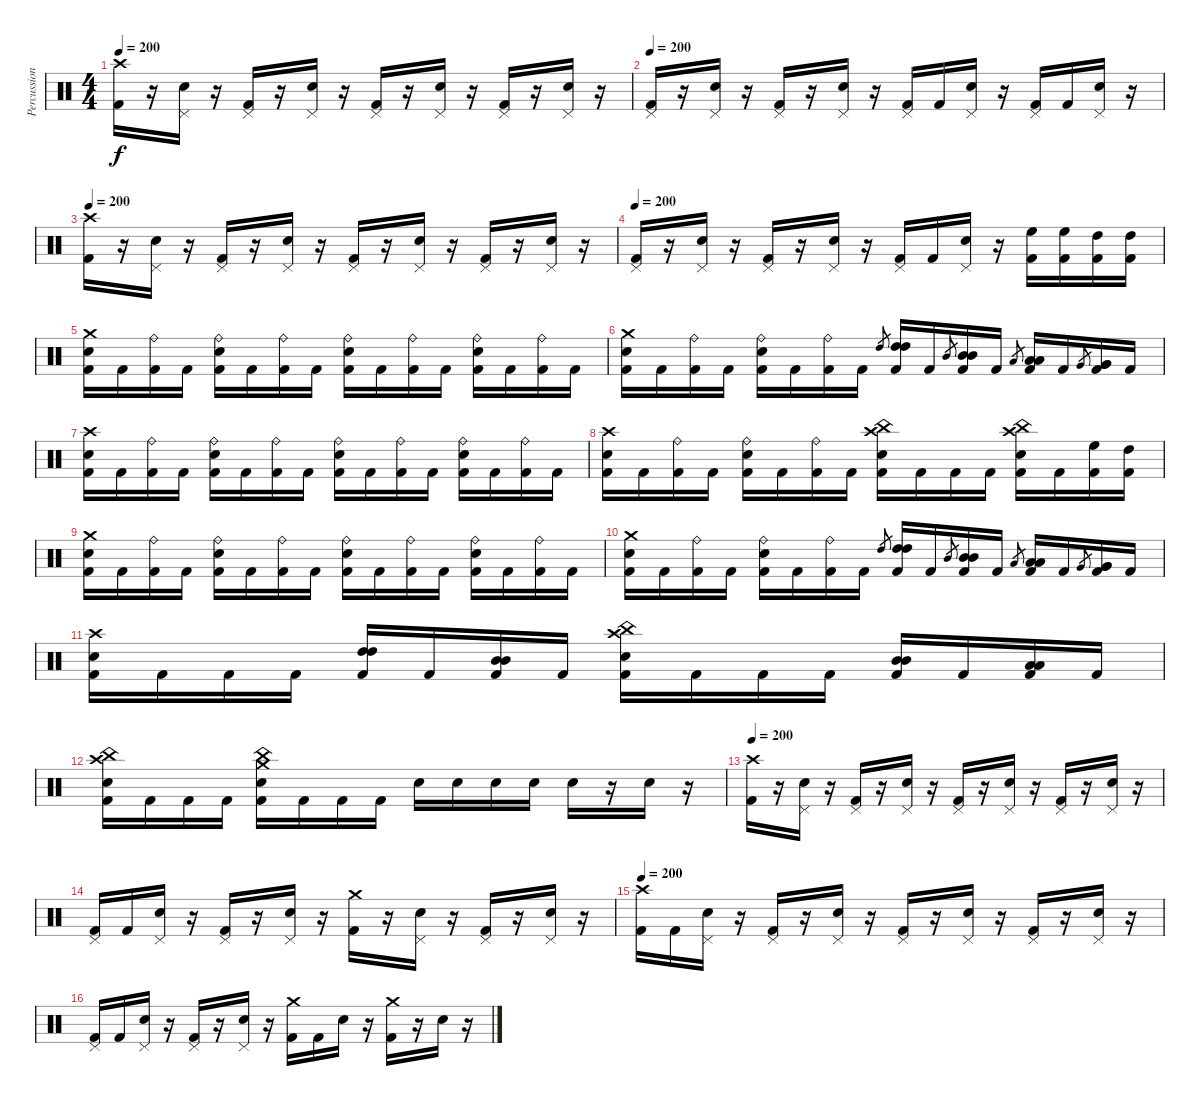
\track ("Percussion" "Percussion") {instrument percussion}
\staff {score}
\articulation defaults
\ts (4 4)
\tempo 200
\clef neutral
\ks c
("Crash high (hit)" "Kick (hit) 2").16{dy f} r.16 ("Pedal Hi-Hat (hit)" "Snare (hit) 2").16 r.16 ("Pedal Hi-Hat (hit)" "Kick (hit) 2").16 r.16 ("Pedal Hi-Hat (hit)" "Snare (hit) 2").16 r.16 ("Pedal Hi-Hat (hit)" "Kick (hit) 2").16 r.16 ("Pedal Hi-Hat (hit)" "Snare (hit) 2").16 r.16 ("Pedal Hi-Hat (hit)" "Kick (hit) 2").16 r.16 ("Pedal Hi-Hat (hit)" "Snare (hit) 2").16 r.16 |
\tempo 200
("Pedal Hi-Hat (hit)" "Kick (hit) 2").16 r.16 ("Pedal Hi-Hat (hit)" "Snare (hit) 2").16 r.16 ("Pedal Hi-Hat (hit)" "Kick (hit) 2").16 r.16 ("Pedal Hi-Hat (hit)" "Snare (hit) 2").16 r.16 ("Pedal Hi-Hat (hit)" "Kick (hit) 2").16 "Kick (hit) 2".16 ("Pedal Hi-Hat (hit)" "Snare (hit) 2").16 r.16 ("Pedal Hi-Hat (hit)" "Kick (hit) 2").16 "Kick (hit) 2".16 ("Pedal Hi-Hat (hit)" "Snare (hit) 2").16 r.16 |
\tempo 200
("Crash high (hit)" "Kick (hit) 2").16 r.16 ("Pedal Hi-Hat (hit)" "Snare (hit) 2").16 r.16 ("Pedal Hi-Hat (hit)" "Kick (hit) 2").16 r.16 ("Pedal Hi-Hat (hit)" "Snare (hit) 2").16 r.16 ("Pedal Hi-Hat (hit)" "Kick (hit) 2").16 r.16 ("Pedal Hi-Hat (hit)" "Snare (hit) 2").16 r.16 ("Pedal Hi-Hat (hit)" "Kick (hit) 2").16 r.16 ("Pedal Hi-Hat (hit)" "Snare (hit) 2").16 r.16 |
\tempo 200
("Pedal Hi-Hat (hit)" "Kick (hit) 2").16 r.16 ("Pedal Hi-Hat (hit)" "Snare (hit) 2").16 r.16 ("Pedal Hi-Hat (hit)" "Kick (hit) 2").16 r.16 ("Pedal Hi-Hat (hit)" "Snare (hit) 2").16 r.16 ("Pedal Hi-Hat (hit)" "Kick (hit) 2").16 "Kick (hit) 2".16 ("Pedal Hi-Hat (hit)" "Snare (hit) 2").16 r.16 ("High Floor Tom (hit)" "Kick (hit) 2").16 ("High Floor Tom (hit)" "Kick (hit) 2").16 ("High Tom (hit)" "Kick (hit) 2").16 ("High Tom (hit)" "Kick (hit) 2").16 |
("Crash medium (hit)" "Snare (hit) 2" "Kick (hit) 2").16 "Kick (hit) 2".16 ("Ride (bell)" "Kick (hit) 2").16 "Kick (hit) 2".16 ("Ride (bell)" "Snare (hit) 2" "Kick (hit) 2").16 "Kick (hit) 2".16 ("Ride (bell)" "Kick (hit) 2").16 "Kick (hit) 2".16 ("Ride (bell)" "Snare (hit) 2" "Kick (hit) 2").16 "Kick (hit) 2".16 ("Ride (bell)" "Kick (hit) 2").16 "Kick (hit) 2".16 ("Ride (bell)" "Snare (hit) 2" "Kick (hit) 2").16 "Kick (hit) 2".16 ("Ride (bell)" "Kick (hit) 2").16 "Kick (hit) 2".16 |
("Crash medium (hit)" "Snare (hit) 2" "Kick (hit) 2").16 "Kick (hit) 2".16 ("Ride (bell)" "Kick (hit) 2").16 "Kick (hit) 2".16 ("Ride (bell)" "Snare (hit) 2" "Kick (hit) 2").16 "Kick (hit) 2".16 ("Ride (bell)" "Kick (hit) 2").16 "Kick (hit) 2".16 "High Tom (hit)".8{gr} ("High Tom (hit)" "High Tom (hit)" "Kick (hit) 2").16 "Kick (hit) 2".16 "Mid Tom (hit)".8{gr} ("Mid Tom (hit)" "Mid Tom (hit)" "Kick (hit) 2").16 "Kick (hit) 2".16 "Low Tom (hit)".8{gr} ("Low Tom (hit)" "Low Tom (hit)" "Kick (hit) 2").16 "Kick (hit) 2".16 "Very Low Tom (hit)".8{gr} ("Very Low Tom (hit)" "Very Low Tom (hit)" "Kick (hit) 2").16 "Kick (hit) 2".16 |
("Crash high (hit)" "Snare (hit) 2" "Kick (hit) 2").16 "Kick (hit) 2".16 ("Ride (bell)" "Kick (hit) 2").16 "Kick (hit) 2".16 ("Ride (bell)" "Snare (hit) 2" "Kick (hit) 2").16 "Kick (hit) 2".16 ("Ride (bell)" "Kick (hit) 2").16 "Kick (hit) 2".16 ("Ride (bell)" "Snare (hit) 2" "Kick (hit) 2").16 "Kick (hit) 2".16 ("Ride (bell)" "Kick (hit) 2").16 "Kick (hit) 2".16 ("Ride (bell)" "Snare (hit) 2" "Kick (hit) 2").16 "Kick (hit) 2".16 ("Ride (bell)" "Kick (hit) 2").16 "Kick (hit) 2".16 |
("Crash high (hit)" "Snare (hit) 2" "Kick (hit) 2").16 "Kick (hit) 2".16 ("Ride (bell)" "Kick (hit) 2").16 "Kick (hit) 2".16 ("Ride (bell)" "Snare (hit) 2" "Kick (hit) 2").16 "Kick (hit) 2".16 ("Ride (bell)" "Kick (hit) 2").16 "Kick (hit) 2".16 ("Crash high (hit)" "China (hit)" "Snare (hit) 2" "Kick (hit) 2").16 "Kick (hit) 2".16 "Kick (hit) 2".16 "Kick (hit) 2".16 ("Crash high (hit)" "China (hit)" "Snare (hit) 2" "Kick (hit) 2").16 "Kick (hit) 2".16 ("High Floor Tom (hit)" "Kick (hit) 2").16 ("High Tom (hit)" "Kick (hit) 2").16 |
("Crash medium (hit)" "Snare (hit) 2" "Kick (hit) 2").16 "Kick (hit) 2".16 ("Ride (bell)" "Kick (hit) 2").16 "Kick (hit) 2".16 ("Ride (bell)" "Snare (hit) 2" "Kick (hit) 2").16 "Kick (hit) 2".16 ("Ride (bell)" "Kick (hit) 2").16 "Kick (hit) 2".16 ("Ride (bell)" "Snare (hit) 2" "Kick (hit) 2").16 "Kick (hit) 2".16 ("Ride (bell)" "Kick (hit) 2").16 "Kick (hit) 2".16 ("Ride (bell)" "Snare (hit) 2" "Kick (hit) 2").16 "Kick (hit) 2".16 ("Ride (bell)" "Kick (hit) 2").16 "Kick (hit) 2".16 |
("Crash medium (hit)" "Snare (hit) 2" "Kick (hit) 2").16 "Kick (hit) 2".16 ("Ride (bell)" "Kick (hit) 2").16 "Kick (hit) 2".16 ("Ride (bell)" "Snare (hit) 2" "Kick (hit) 2").16 "Kick (hit) 2".16 ("Ride (bell)" "Kick (hit) 2").16 "Kick (hit) 2".16 "High Tom (hit)".8{gr} ("High Tom (hit)" "High Tom (hit)" "Kick (hit) 2").16 "Kick (hit) 2".16 "Mid Tom (hit)".8{gr} ("Mid Tom (hit)" "Mid Tom (hit)" "Kick (hit) 2").16 "Kick (hit) 2".16 "Low Tom (hit)".8{gr} ("Low Tom (hit)" "Low Tom (hit)" "Kick (hit) 2").16 "Kick (hit) 2".16 "Very Low Tom (hit)".8{gr} ("Very Low Tom (hit)" "Very Low Tom (hit)" "Kick (hit) 2").16 "Kick (hit) 2".16 |
("Crash high (hit)" "Snare (hit) 2" "Kick (hit) 2").16 "Kick (hit) 2".16 "Kick (hit) 2".16 "Kick (hit) 2".16 ("High Tom (hit)" "High Tom (hit)" "Kick (hit) 2").16 "Kick (hit) 2".16 ("Mid Tom (hit)" "Mid Tom (hit)" "Kick (hit) 2").16 "Kick (hit) 2".16 ("Crash high (hit)" "China (hit)" "Snare (hit) 2" "Kick (hit) 2").16 "Kick (hit) 2".16 "Kick (hit) 2".16 "Kick (hit) 2".16 ("Mid Tom (hit)" "Mid Tom (hit)" "Kick (hit) 2").16 "Kick (hit) 2".16 ("Low Tom (hit)" "Low Tom (hit)" "Kick (hit) 2").16 "Kick (hit) 2".16 |
("Crash high (hit)" "China (hit)" "Snare (hit) 2" "Kick (hit) 2").16 "Kick (hit) 2".16 "Kick (hit) 2".16 "Kick (hit) 2".16 ("Crash medium (hit)" "China (hit)" "Snare (hit) 2" "Kick (hit) 2").16 "Kick (hit) 2".16 "Kick (hit) 2".16 "Kick (hit) 2".16 "Snare (hit) 2".16 "Snare (hit) 2".16 "Snare (hit) 2".16 "Snare (hit) 2".16 "Snare (hit) 2".16 r.16 "Snare (hit) 2".16 r.16 |
\tempo 200
("Crash high (hit)" "Kick (hit) 2").16 r.16 ("Pedal Hi-Hat (hit)" "Snare (hit) 2").16 r.16 ("Pedal Hi-Hat (hit)" "Kick (hit) 2").16 r.16 ("Pedal Hi-Hat (hit)" "Snare (hit) 2").16 r.16 ("Pedal Hi-Hat (hit)" "Kick (hit) 2").16 r.16 ("Pedal Hi-Hat (hit)" "Snare (hit) 2").16 r.16 ("Pedal Hi-Hat (hit)" "Kick (hit) 2").16 r.16 ("Pedal Hi-Hat (hit)" "Snare (hit) 2").16 r.16 |
("Pedal Hi-Hat (hit)" "Kick (hit) 2").16 "Kick (hit) 2".16 ("Pedal Hi-Hat (hit)" "Snare (hit) 2").16 r.16 ("Pedal Hi-Hat (hit)" "Kick (hit) 2").16 r.16 ("Pedal Hi-Hat (hit)" "Snare (hit) 2").16 r.16 ("Crash medium (hit)" "Kick (hit) 2").16 r.16 ("Pedal Hi-Hat (hit)" "Snare (hit) 2").16 r.16 ("Pedal Hi-Hat (hit)" "Kick (hit) 2").16 r.16 ("Pedal Hi-Hat (hit)" "Snare (hit) 2").16 r.16 |
\tempo 200
("Crash high (hit)" "Kick (hit) 2").16 "Kick (hit) 2".16 ("Pedal Hi-Hat (hit)" "Snare (hit) 2").16 r.16 ("Pedal Hi-Hat (hit)" "Kick (hit) 2").16 r.16 ("Pedal Hi-Hat (hit)" "Snare (hit) 2").16 r.16 ("Pedal Hi-Hat (hit)" "Kick (hit) 2").16 r.16 ("Pedal Hi-Hat (hit)" "Snare (hit) 2").16 r.16 ("Pedal Hi-Hat (hit)" "Kick (hit) 2").16 r.16 ("Pedal Hi-Hat (hit)" "Snare (hit) 2").16 r.16 |
("Pedal Hi-Hat (hit)" "Kick (hit) 2").16 "Kick (hit) 2".16 ("Pedal Hi-Hat (hit)" "Snare (hit) 2").16 r.16 ("Pedal Hi-Hat (hit)" "Kick (hit) 2").16 r.16 ("Pedal Hi-Hat (hit)" "Snare (hit) 2").16 r.16 ("Crash medium (hit)" "Kick (hit) 2").16 "Kick (hit) 2".16 "Snare (hit) 2".16 r.16 ("Crash medium (hit)" "Kick (hit) 2").16 r.16 "Snare (hit) 2".16 r.16
